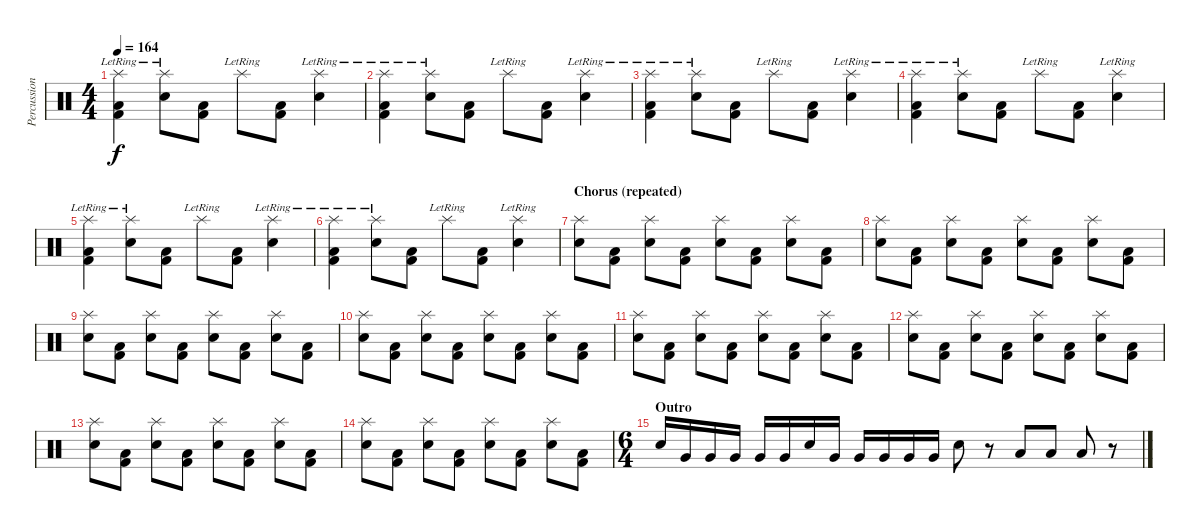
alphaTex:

\track ("Percussion" "Percussion") {instrument percussion}
\staff {score}
\articulation defaults
\ts (4 4)
\tempo 164
\clef neutral
\ks c
("Splash (hit)"{lr} "Low Floor Tom (hit)" "Kick (hit) 2").4{dy f} ("Splash (hit)"{lr} "Snare (hit) 2").8 ("Low Floor Tom (hit)" "Kick (hit) 2").8 "Splash (hit)"{lr}.8 ("Low Floor Tom (hit)" "Kick (hit) 2").8 ("Splash (hit)"{lr} "Snare (hit) 2").4 |
("Splash (hit)"{lr} "Low Floor Tom (hit)" "Kick (hit) 2").4 ("Splash (hit)"{lr} "Snare (hit) 2").8 ("Low Floor Tom (hit)" "Kick (hit) 2").8 "Splash (hit)"{lr}.8 ("Low Floor Tom (hit)" "Kick (hit) 2").8 ("Splash (hit)"{lr} "Snare (hit) 2").4 |
("Splash (hit)"{lr} "Low Floor Tom (hit)" "Kick (hit) 2").4 ("Splash (hit)"{lr} "Snare (hit) 2").8 ("Low Floor Tom (hit)" "Kick (hit) 2").8 "Splash (hit)"{lr}.8 ("Low Floor Tom (hit)" "Kick (hit) 2").8 ("Splash (hit)"{lr} "Snare (hit) 2").4 |
("Splash (hit)"{lr} "Low Floor Tom (hit)" "Kick (hit) 2").4 ("Splash (hit)"{lr} "Snare (hit) 2").8 ("Low Floor Tom (hit)" "Kick (hit) 2").8 "Splash (hit)"{lr}.8 ("Low Floor Tom (hit)" "Kick (hit) 2").8 ("Splash (hit)"{lr} "Snare (hit) 2").4 |
("Splash (hit)"{lr} "Low Floor Tom (hit)" "Kick (hit) 2").4 ("Splash (hit)"{lr} "Snare (hit) 2").8 ("Low Floor Tom (hit)" "Kick (hit) 2").8 "Splash (hit)"{lr}.8 ("Low Floor Tom (hit)" "Kick (hit) 2").8 ("Splash (hit)"{lr} "Snare (hit) 2").4 |
("Splash (hit)"{lr} "Low Floor Tom (hit)" "Kick (hit) 2").4 ("Splash (hit)"{lr} "Snare (hit) 2").8 ("Low Floor Tom (hit)" "Kick (hit) 2").8 "Splash (hit)"{lr}.8 ("Low Floor Tom (hit)" "Kick (hit) 2").8 ("Splash (hit)"{lr} "Snare (hit) 2").4 |
\section ("" "Chorus (repeated)")
("Splash (hit)" "Snare (hit) 2").8 ("Low Floor Tom (hit)" "Kick (hit) 2").8 ("Splash (hit)" "Snare (hit) 2").8 ("Low Floor Tom (hit)" "Kick (hit) 2").8 ("Splash (hit)" "Snare (hit) 2").8 ("Low Floor Tom (hit)" "Kick (hit) 2").8 ("Splash (hit)" "Snare (hit) 2").8 ("Low Floor Tom (hit)" "Kick (hit) 2").8 |
("Splash (hit)" "Snare (hit) 2").8 ("Low Floor Tom (hit)" "Kick (hit) 2").8 ("Splash (hit)" "Snare (hit) 2").8 ("Low Floor Tom (hit)" "Kick (hit) 2").8 ("Splash (hit)" "Snare (hit) 2").8 ("Low Floor Tom (hit)" "Kick (hit) 2").8 ("Splash (hit)" "Snare (hit) 2").8 ("Low Floor Tom (hit)" "Kick (hit) 2").8 |
("Splash (hit)" "Snare (hit) 2").8 ("Low Floor Tom (hit)" "Kick (hit) 2").8 ("Splash (hit)" "Snare (hit) 2").8 ("Low Floor Tom (hit)" "Kick (hit) 2").8 ("Splash (hit)" "Snare (hit) 2").8 ("Low Floor Tom (hit)" "Kick (hit) 2").8 ("Splash (hit)" "Snare (hit) 2").8 ("Low Floor Tom (hit)" "Kick (hit) 2").8 |
("Splash (hit)" "Snare (hit) 2").8 ("Low Floor Tom (hit)" "Kick (hit) 2").8 ("Splash (hit)" "Snare (hit) 2").8 ("Low Floor Tom (hit)" "Kick (hit) 2").8 ("Splash (hit)" "Snare (hit) 2").8 ("Low Floor Tom (hit)" "Kick (hit) 2").8 ("Splash (hit)" "Snare (hit) 2").8 ("Low Floor Tom (hit)" "Kick (hit) 2").8 |
("Splash (hit)" "Snare (hit) 2").8 ("Low Floor Tom (hit)" "Kick (hit) 2").8 ("Splash (hit)" "Snare (hit) 2").8 ("Low Floor Tom (hit)" "Kick (hit) 2").8 ("Splash (hit)" "Snare (hit) 2").8 ("Low Floor Tom (hit)" "Kick (hit) 2").8 ("Splash (hit)" "Snare (hit) 2").8 ("Low Floor Tom (hit)" "Kick (hit) 2").8 |
("Splash (hit)" "Snare (hit) 2").8 ("Low Floor Tom (hit)" "Kick (hit) 2").8 ("Splash (hit)" "Snare (hit) 2").8 ("Low Floor Tom (hit)" "Kick (hit) 2").8 ("Splash (hit)" "Snare (hit) 2").8 ("Low Floor Tom (hit)" "Kick (hit) 2").8 ("Splash (hit)" "Snare (hit) 2").8 ("Low Floor Tom (hit)" "Kick (hit) 2").8 |
("Splash (hit)" "Snare (hit) 2").8 ("Low Floor Tom (hit)" "Kick (hit) 2").8 ("Splash (hit)" "Snare (hit) 2").8 ("Low Floor Tom (hit)" "Kick (hit) 2").8 ("Splash (hit)" "Snare (hit) 2").8 ("Low Floor Tom (hit)" "Kick (hit) 2").8 ("Splash (hit)" "Snare (hit) 2").8 ("Low Floor Tom (hit)" "Kick (hit) 2").8 |
("Splash (hit)" "Snare (hit) 2").8 ("Low Floor Tom (hit)" "Kick (hit) 2").8 ("Splash (hit)" "Snare (hit) 2").8 ("Low Floor Tom (hit)" "Kick (hit) 2").8 ("Splash (hit)" "Snare (hit) 2").8 ("Low Floor Tom (hit)" "Kick (hit) 2").8 ("Splash (hit)" "Snare (hit) 2").8 ("Low Floor Tom (hit)" "Kick (hit) 2").8 |
\ts (6 4)
\section ("" "Outro")
"Snare (hit) 2".16 "Very Low Tom (hit)".16 "Very Low Tom (hit)".16 "Very Low Tom (hit)".16 "Very Low Tom (hit)".16 "Very Low Tom (hit)".16 "Snare (hit) 2".16 "Very Low Tom (hit)".16 "Very Low Tom (hit)".16 "Very Low Tom (hit)".16 "Very Low Tom (hit)".16 "Very Low Tom (hit)".16 "Snare (hit) 2".8 r.8 "Low Tom (hit)".8 "Low Tom (hit)".8 "Low Floor Tom (hit)".8 r.8
